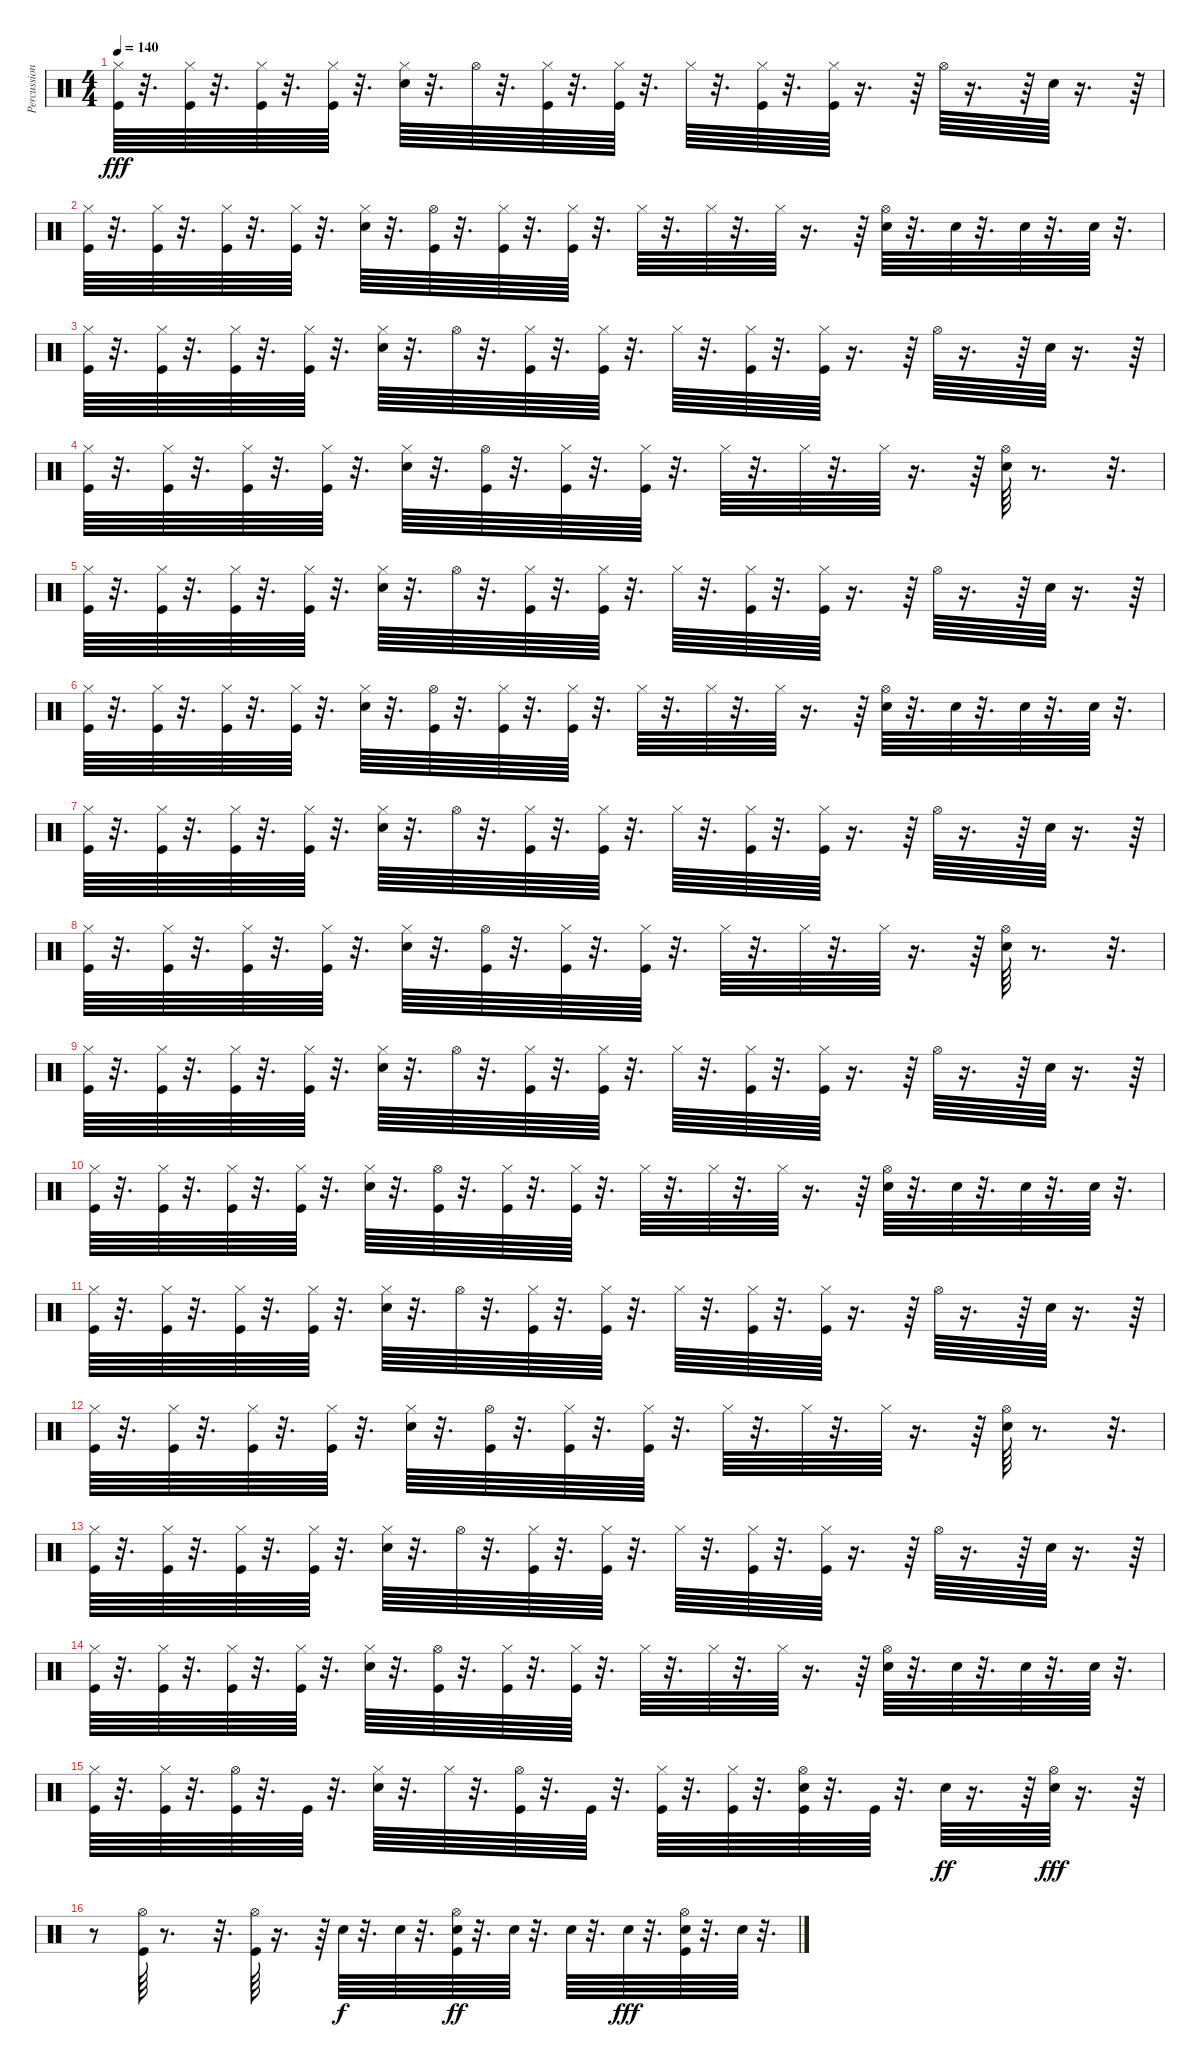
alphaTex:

\track ("Percussion [Room Kit]" "Percussion") {instrument percussion}
\staff {score}
\articulation defaults
\ts (4 4)
\tempo 140
\clef neutral
\ks c
("Kick (hit)" "Hi-Hat (closed)").64{dy fff} r.32{d} ("Kick (hit)" "Hi-Hat (closed)").64 r.32{d} ("Kick (hit)" "Hi-Hat (closed)").64 r.32{d} ("Kick (hit)" "Hi-Hat (closed)").64 r.32{d} ("Electric Snare (hit)" "Hi-Hat (closed)").64 r.32{d} "Hi-Hat (open)".64 r.32{d} ("Kick (hit)" "Hi-Hat (closed)").64 r.32{d} ("Kick (hit)" "Hi-Hat (closed)").64 r.32{d} "Hi-Hat (closed)".64 r.32{d} ("Kick (hit)" "Hi-Hat (closed)").64 r.32{d} ("Kick (hit)" "Hi-Hat (closed)").64 r.16{d} r.64 "Hi-Hat (open)".64 r.16{d} r.64 "Electric Snare (hit)".64 r.16{d} r.64 |
("Kick (hit)" "Hi-Hat (closed)").64 r.32{d} ("Kick (hit)" "Hi-Hat (closed)").64 r.32{d} ("Kick (hit)" "Hi-Hat (closed)").64 r.32{d} ("Kick (hit)" "Hi-Hat (closed)").64 r.32{d} ("Electric Snare (hit)" "Hi-Hat (closed)").64 r.32{d} ("Kick (hit)" "Hi-Hat (open)").64 r.32{d} ("Kick (hit)" "Hi-Hat (closed)").64 r.32{d} ("Kick (hit)" "Hi-Hat (closed)").64 r.32{d} "Hi-Hat (closed)".64 r.32{d} "Hi-Hat (closed)".64 r.32{d} "Hi-Hat (closed)".64 r.16{d} r.64 ("Electric Snare (hit)" "Hi-Hat (open)").64 r.32{d} "Electric Snare (hit)".64 r.32{d} "Electric Snare (hit)".64 r.32{d} "Electric Snare (hit)".64 r.32{d} |
("Kick (hit)" "Hi-Hat (closed)").64 r.32{d} ("Kick (hit)" "Hi-Hat (closed)").64 r.32{d} ("Kick (hit)" "Hi-Hat (closed)").64 r.32{d} ("Kick (hit)" "Hi-Hat (closed)").64 r.32{d} ("Electric Snare (hit)" "Hi-Hat (closed)").64 r.32{d} "Hi-Hat (open)".64 r.32{d} ("Kick (hit)" "Hi-Hat (closed)").64 r.32{d} ("Kick (hit)" "Hi-Hat (closed)").64 r.32{d} "Hi-Hat (closed)".64 r.32{d} ("Kick (hit)" "Hi-Hat (closed)").64 r.32{d} ("Kick (hit)" "Hi-Hat (closed)").64 r.16{d} r.64 "Hi-Hat (open)".64 r.16{d} r.64 "Electric Snare (hit)".64 r.16{d} r.64 |
("Kick (hit)" "Hi-Hat (closed)").64 r.32{d} ("Kick (hit)" "Hi-Hat (closed)").64 r.32{d} ("Kick (hit)" "Hi-Hat (closed)").64 r.32{d} ("Kick (hit)" "Hi-Hat (closed)").64 r.32{d} ("Electric Snare (hit)" "Hi-Hat (closed)").64 r.32{d} ("Kick (hit)" "Hi-Hat (open)").64 r.32{d} ("Kick (hit)" "Hi-Hat (closed)").64 r.32{d} ("Kick (hit)" "Hi-Hat (closed)").64 r.32{d} "Hi-Hat (closed)".64 r.32{d} "Hi-Hat (closed)".64 r.32{d} "Hi-Hat (closed)".64 r.16{d} r.64 ("Electric Snare (hit)" "Hi-Hat (open)").64 r.8{d} r.32{d} |
("Kick (hit)" "Hi-Hat (closed)").64 r.32{d} ("Kick (hit)" "Hi-Hat (closed)").64 r.32{d} ("Kick (hit)" "Hi-Hat (closed)").64 r.32{d} ("Kick (hit)" "Hi-Hat (closed)").64 r.32{d} ("Electric Snare (hit)" "Hi-Hat (closed)").64 r.32{d} "Hi-Hat (open)".64 r.32{d} ("Kick (hit)" "Hi-Hat (closed)").64 r.32{d} ("Kick (hit)" "Hi-Hat (closed)").64 r.32{d} "Hi-Hat (closed)".64 r.32{d} ("Kick (hit)" "Hi-Hat (closed)").64 r.32{d} ("Kick (hit)" "Hi-Hat (closed)").64 r.16{d} r.64 "Hi-Hat (open)".64 r.16{d} r.64 "Electric Snare (hit)".64 r.16{d} r.64 |
("Kick (hit)" "Hi-Hat (closed)").64 r.32{d} ("Kick (hit)" "Hi-Hat (closed)").64 r.32{d} ("Kick (hit)" "Hi-Hat (closed)").64 r.32{d} ("Kick (hit)" "Hi-Hat (closed)").64 r.32{d} ("Electric Snare (hit)" "Hi-Hat (closed)").64 r.32{d} ("Kick (hit)" "Hi-Hat (open)").64 r.32{d} ("Kick (hit)" "Hi-Hat (closed)").64 r.32{d} ("Kick (hit)" "Hi-Hat (closed)").64 r.32{d} "Hi-Hat (closed)".64 r.32{d} "Hi-Hat (closed)".64 r.32{d} "Hi-Hat (closed)".64 r.16{d} r.64 ("Electric Snare (hit)" "Hi-Hat (open)").64 r.32{d} "Electric Snare (hit)".64 r.32{d} "Electric Snare (hit)".64 r.32{d} "Electric Snare (hit)".64 r.32{d} |
("Kick (hit)" "Hi-Hat (closed)").64 r.32{d} ("Kick (hit)" "Hi-Hat (closed)").64 r.32{d} ("Kick (hit)" "Hi-Hat (closed)").64 r.32{d} ("Kick (hit)" "Hi-Hat (closed)").64 r.32{d} ("Electric Snare (hit)" "Hi-Hat (closed)").64 r.32{d} "Hi-Hat (open)".64 r.32{d} ("Kick (hit)" "Hi-Hat (closed)").64 r.32{d} ("Kick (hit)" "Hi-Hat (closed)").64 r.32{d} "Hi-Hat (closed)".64 r.32{d} ("Kick (hit)" "Hi-Hat (closed)").64 r.32{d} ("Kick (hit)" "Hi-Hat (closed)").64 r.16{d} r.64 "Hi-Hat (open)".64 r.16{d} r.64 "Electric Snare (hit)".64 r.16{d} r.64 |
("Kick (hit)" "Hi-Hat (closed)").64 r.32{d} ("Kick (hit)" "Hi-Hat (closed)").64 r.32{d} ("Kick (hit)" "Hi-Hat (closed)").64 r.32{d} ("Kick (hit)" "Hi-Hat (closed)").64 r.32{d} ("Electric Snare (hit)" "Hi-Hat (closed)").64 r.32{d} ("Kick (hit)" "Hi-Hat (open)").64 r.32{d} ("Kick (hit)" "Hi-Hat (closed)").64 r.32{d} ("Kick (hit)" "Hi-Hat (closed)").64 r.32{d} "Hi-Hat (closed)".64 r.32{d} "Hi-Hat (closed)".64 r.32{d} "Hi-Hat (closed)".64 r.16{d} r.64 ("Electric Snare (hit)" "Hi-Hat (open)").64 r.8{d} r.32{d} |
("Kick (hit)" "Hi-Hat (closed)").64 r.32{d} ("Kick (hit)" "Hi-Hat (closed)").64 r.32{d} ("Kick (hit)" "Hi-Hat (closed)").64 r.32{d} ("Kick (hit)" "Hi-Hat (closed)").64 r.32{d} ("Electric Snare (hit)" "Hi-Hat (closed)").64 r.32{d} "Hi-Hat (open)".64 r.32{d} ("Kick (hit)" "Hi-Hat (closed)").64 r.32{d} ("Kick (hit)" "Hi-Hat (closed)").64 r.32{d} "Hi-Hat (closed)".64 r.32{d} ("Kick (hit)" "Hi-Hat (closed)").64 r.32{d} ("Kick (hit)" "Hi-Hat (closed)").64 r.16{d} r.64 "Hi-Hat (open)".64 r.16{d} r.64 "Electric Snare (hit)".64 r.16{d} r.64 |
("Kick (hit)" "Hi-Hat (closed)").64 r.32{d} ("Kick (hit)" "Hi-Hat (closed)").64 r.32{d} ("Kick (hit)" "Hi-Hat (closed)").64 r.32{d} ("Kick (hit)" "Hi-Hat (closed)").64 r.32{d} ("Electric Snare (hit)" "Hi-Hat (closed)").64 r.32{d} ("Kick (hit)" "Hi-Hat (open)").64 r.32{d} ("Kick (hit)" "Hi-Hat (closed)").64 r.32{d} ("Kick (hit)" "Hi-Hat (closed)").64 r.32{d} "Hi-Hat (closed)".64 r.32{d} "Hi-Hat (closed)".64 r.32{d} "Hi-Hat (closed)".64 r.16{d} r.64 ("Electric Snare (hit)" "Hi-Hat (open)").64 r.32{d} "Electric Snare (hit)".64 r.32{d} "Electric Snare (hit)".64 r.32{d} "Electric Snare (hit)".64 r.32{d} |
("Kick (hit)" "Hi-Hat (closed)").64 r.32{d} ("Kick (hit)" "Hi-Hat (closed)").64 r.32{d} ("Kick (hit)" "Hi-Hat (closed)").64 r.32{d} ("Kick (hit)" "Hi-Hat (closed)").64 r.32{d} ("Electric Snare (hit)" "Hi-Hat (closed)").64 r.32{d} "Hi-Hat (open)".64 r.32{d} ("Kick (hit)" "Hi-Hat (closed)").64 r.32{d} ("Kick (hit)" "Hi-Hat (closed)").64 r.32{d} "Hi-Hat (closed)".64 r.32{d} ("Kick (hit)" "Hi-Hat (closed)").64 r.32{d} ("Kick (hit)" "Hi-Hat (closed)").64 r.16{d} r.64 "Hi-Hat (open)".64 r.16{d} r.64 "Electric Snare (hit)".64 r.16{d} r.64 |
("Kick (hit)" "Hi-Hat (closed)").64 r.32{d} ("Kick (hit)" "Hi-Hat (closed)").64 r.32{d} ("Kick (hit)" "Hi-Hat (closed)").64 r.32{d} ("Kick (hit)" "Hi-Hat (closed)").64 r.32{d} ("Electric Snare (hit)" "Hi-Hat (closed)").64 r.32{d} ("Kick (hit)" "Hi-Hat (open)").64 r.32{d} ("Kick (hit)" "Hi-Hat (closed)").64 r.32{d} ("Kick (hit)" "Hi-Hat (closed)").64 r.32{d} "Hi-Hat (closed)".64 r.32{d} "Hi-Hat (closed)".64 r.32{d} "Hi-Hat (closed)".64 r.16{d} r.64 ("Electric Snare (hit)" "Hi-Hat (open)").64 r.8{d} r.32{d} |
("Kick (hit)" "Hi-Hat (closed)").64 r.32{d} ("Kick (hit)" "Hi-Hat (closed)").64 r.32{d} ("Kick (hit)" "Hi-Hat (closed)").64 r.32{d} ("Kick (hit)" "Hi-Hat (closed)").64 r.32{d} ("Electric Snare (hit)" "Hi-Hat (closed)").64 r.32{d} "Hi-Hat (open)".64 r.32{d} ("Kick (hit)" "Hi-Hat (closed)").64 r.32{d} ("Kick (hit)" "Hi-Hat (closed)").64 r.32{d} "Hi-Hat (closed)".64 r.32{d} ("Kick (hit)" "Hi-Hat (closed)").64 r.32{d} ("Kick (hit)" "Hi-Hat (closed)").64 r.16{d} r.64 "Hi-Hat (open)".64 r.16{d} r.64 "Electric Snare (hit)".64 r.16{d} r.64 |
("Kick (hit)" "Hi-Hat (closed)").64 r.32{d} ("Kick (hit)" "Hi-Hat (closed)").64 r.32{d} ("Kick (hit)" "Hi-Hat (closed)").64 r.32{d} ("Kick (hit)" "Hi-Hat (closed)").64 r.32{d} ("Electric Snare (hit)" "Hi-Hat (closed)").64 r.32{d} ("Kick (hit)" "Hi-Hat (open)").64 r.32{d} ("Kick (hit)" "Hi-Hat (closed)").64 r.32{d} ("Kick (hit)" "Hi-Hat (closed)").64 r.32{d} "Hi-Hat (closed)".64 r.32{d} "Hi-Hat (closed)".64 r.32{d} "Hi-Hat (closed)".64 r.16{d} r.64 ("Electric Snare (hit)" "Hi-Hat (open)").64 r.32{d} "Electric Snare (hit)".64 r.32{d} "Electric Snare (hit)".64 r.32{d} "Electric Snare (hit)".64 r.32{d} |
("Hi-Hat (closed)" "Kick (hit)").64 r.32{d} ("Hi-Hat (closed)" "Kick (hit)").64 r.32{d} ("Hi-Hat (open)" "Kick (hit)").64 r.32{d} "Kick (hit)".64 r.32{d} ("Hi-Hat (closed)" "Electric Snare (hit)").64 r.32{d} "Hi-Hat (closed)".64 r.32{d} ("Hi-Hat (open)" "Kick (hit)").64 r.32{d} "Kick (hit)".64 r.32{d} ("Hi-Hat (closed)" "Kick (hit)").64 r.32{d} ("Hi-Hat (closed)" "Kick (hit)").64 r.32{d} ("Hi-Hat (open)" "Kick (hit)" "Electric Snare (hit)").64 r.32{d} "Kick (hit)".64 r.32{d} "Electric Snare (hit)".64{dy ff} r.16{d} r.64 ("Hi-Hat (open)" "Electric Snare (hit)").64{dy fff} r.16{d} r.64 |
r.8 ("Kick (hit)" "Hi-Hat (open)").64 r.8{d} r.32{d} ("Kick (hit)" "Hi-Hat (open)").64 r.16{d} r.64 "Electric Snare (hit)".64{dy f} r.32{d} "Electric Snare (hit)".64 r.32{d} ("Kick (hit)" "Hi-Hat (open)" "Electric Snare (hit)").64{dy ff} r.32{d} "Electric Snare (hit)".64 r.32{d} "Electric Snare (hit)".64 r.32{d} "Electric Snare (hit)".64{dy fff} r.32{d} ("Kick (hit)" "Hi-Hat (open)" "Electric Snare (hit)").64 r.32{d} "Electric Snare (hit)".64 r.32{d}
